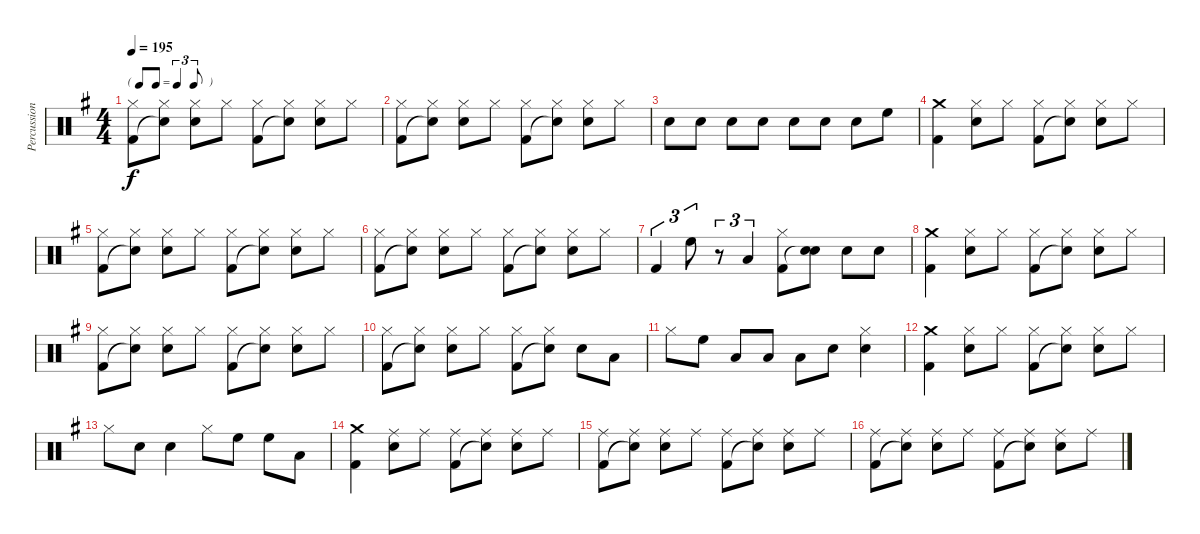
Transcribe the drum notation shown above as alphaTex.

\track ("Percussion" "Percussion") {instrument percussion}
\staff {score}
\articulation defaults
\ts (4 4)
\tf triplet8th
\tempo 195
\clef neutral
\ks g
("Hi-Hat (closed)" "Kick (hit) 2").8{dy f} ("Hi-Hat (closed)" "Snare (hit)"{t}).8 ("Hi-Hat (closed)" "Snare (hit) 2").8 "Hi-Hat (closed)".8 ("Hi-Hat (closed)" "Kick (hit) 2").8 ("Hi-Hat (closed)" "Snare (hit)"{t}).8 ("Hi-Hat (closed)" "Snare (hit) 2").8 "Hi-Hat (closed)".8 |
("Hi-Hat (closed)" "Kick (hit) 2").8 ("Hi-Hat (closed)" "Snare (hit)"{t}).8 ("Hi-Hat (closed)" "Snare (hit) 2").8 "Hi-Hat (closed)".8 ("Hi-Hat (closed)" "Kick (hit) 2").8 ("Hi-Hat (closed)" "Snare (hit)"{t}).8 ("Hi-Hat (closed)" "Snare (hit) 2").8 "Hi-Hat (closed)".8 |
"Snare (hit) 2".8 "Snare (hit) 2".8 "Snare (hit) 2".8 "Snare (hit) 2".8 "Snare (hit) 2".8 "Snare (hit) 2".8 "Snare (hit) 2".8 "High Floor Tom (hit)".8 |
("Crash medium (hit)" "Kick (hit) 2").4 ("Hi-Hat (closed)" "Snare (hit) 2").8 "Hi-Hat (closed)".8 ("Hi-Hat (closed)" "Kick (hit) 2").8 ("Hi-Hat (closed)" "Snare (hit)"{t}).8 ("Hi-Hat (closed)" "Snare (hit) 2").8 "Hi-Hat (closed)".8 |
("Hi-Hat (closed)" "Kick (hit) 2").8 ("Hi-Hat (closed)" "Snare (hit)"{t}).8 ("Hi-Hat (closed)" "Snare (hit) 2").8 "Hi-Hat (closed)".8 ("Hi-Hat (closed)" "Kick (hit) 2").8 ("Hi-Hat (closed)" "Snare (hit)"{t}).8 ("Hi-Hat (closed)" "Snare (hit) 2").8 "Hi-Hat (closed)".8 |
("Hi-Hat (closed)" "Kick (hit) 2").8 ("Hi-Hat (closed)" "Snare (hit)"{t}).8 ("Hi-Hat (closed)" "Snare (hit) 2").8 "Hi-Hat (closed)".8 ("Hi-Hat (closed)" "Kick (hit) 2").8 ("Hi-Hat (closed)" "Snare (hit)"{t}).8 ("Hi-Hat (closed)" "Snare (hit) 2").8 "Hi-Hat (closed)".8 |
"Kick (hit) 2".4{tu (3 2)} "High Floor Tom (hit)".8{tu (3 2)} r.8{tu (3 2)} "Low Tom (hit)".4{tu (3 2)} ("Hi-Hat (closed)" "Kick (hit) 2").8 ("Snare (hit) 2" "Snare (hit)"{t}).8 "Snare (hit) 2".8 "Snare (hit) 2".8 |
("Crash medium (hit)" "Kick (hit) 2").4 ("Hi-Hat (closed)" "Snare (hit) 2").8 "Hi-Hat (closed)".8 ("Hi-Hat (closed)" "Kick (hit) 2").8 ("Hi-Hat (closed)" "Snare (hit)"{t}).8 ("Hi-Hat (closed)" "Snare (hit) 2").8 "Hi-Hat (closed)".8 |
("Hi-Hat (closed)" "Kick (hit) 2").8 ("Hi-Hat (closed)" "Snare (hit)"{t}).8 ("Hi-Hat (closed)" "Snare (hit) 2").8 "Hi-Hat (closed)".8 ("Hi-Hat (closed)" "Kick (hit) 2").8 ("Hi-Hat (closed)" "Snare (hit)"{t}).8 ("Hi-Hat (closed)" "Snare (hit) 2").8 "Hi-Hat (closed)".8 |
("Hi-Hat (closed)" "Kick (hit) 2").8 ("Hi-Hat (closed)" "Snare (hit)"{t}).8 ("Hi-Hat (closed)" "Snare (hit) 2").8 "Hi-Hat (closed)".8 ("Hi-Hat (closed)" "Kick (hit) 2").8 ("Hi-Hat (closed)" "Snare (hit)"{t}).8 "Snare (hit) 2".8 "Low Tom (hit)".8 |
"Hi-Hat (closed)".8 "High Floor Tom (hit)".8 "Low Tom (hit)".8 "Low Tom (hit)".8 "Low Tom (hit)".8 "Snare (hit) 2".8 ("Hi-Hat (closed)" "Snare (hit) 2").4 |
("Crash medium (hit)" "Kick (hit) 2").4 ("Hi-Hat (closed)" "Snare (hit) 2").8 "Hi-Hat (closed)".8 ("Hi-Hat (closed)" "Kick (hit) 2").8 ("Hi-Hat (closed)" "Snare (hit)"{t}).8 ("Hi-Hat (closed)" "Snare (hit) 2").8 "Hi-Hat (closed)".8 |
"Hi-Hat (closed)".8 "Snare (hit) 2".8 "Snare (hit) 2".4 "Hi-Hat (closed)".8 "High Floor Tom (hit)".8 "High Floor Tom (hit)".8 "Low Tom (hit)".8 |
("Crash medium (hit)" "Kick (hit) 2").4 ("Ride (middle)" "Snare (hit) 2").8 "Ride (middle)".8 ("Ride (middle)" "Kick (hit) 2").8 ("Ride (middle)" "Snare (hit)"{t}).8 ("Ride (middle)" "Snare (hit) 2").8 "Ride (middle)".8 |
("Ride (middle)" "Kick (hit) 2").8 ("Ride (middle)" "Snare (hit)"{t}).8 ("Ride (middle)" "Snare (hit) 2").8 "Ride (middle)".8 ("Ride (middle)" "Kick (hit) 2").8 ("Ride (middle)" "Snare (hit)"{t}).8 ("Ride (middle)" "Snare (hit) 2").8 "Ride (middle)".8 |
("Ride (middle)" "Kick (hit) 2").8 ("Ride (middle)" "Snare (hit)"{t}).8 ("Ride (middle)" "Snare (hit) 2").8 "Ride (middle)".8 ("Ride (middle)" "Kick (hit) 2").8 ("Ride (middle)" "Snare (hit)"{t}).8 ("Ride (middle)" "Snare (hit) 2").8 "Ride (middle)".8
